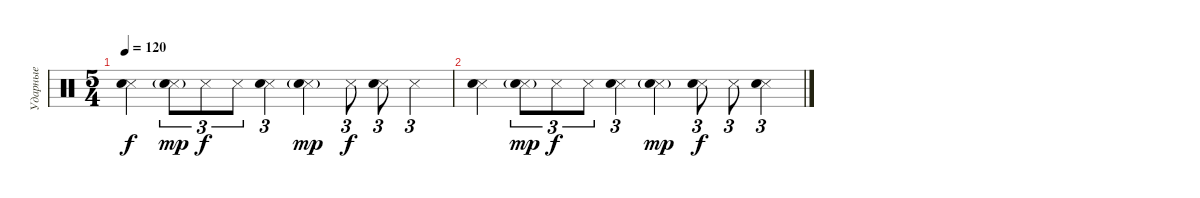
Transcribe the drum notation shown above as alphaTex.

\track ("Ударные" "Ударные") {instrument percussion}
\staff {score}
\articulation defaults
\ts (5 4)
\tempo 120
\clef neutral
\ks c
("Snare (side stick) 3" "Hand Clap (hit)").4{dy f} ("Snare (side stick) 3"{g} "Hand Clap (hit)"{g}).8{tu (3 2) dy mp} "Snare (side stick) 3".8{tu (3 2) dy f} "Snare (side stick) 3".8{tu (3 2)} ("Snare (side stick) 3" "Hand Clap (hit)").4{tu (3 2)} ("Snare (side stick) 3"{g} "Hand Clap (hit)"{g}).4{dy mp} "Snare (side stick) 3".8{tu (3 2) dy f} ("Snare (side stick) 3" "Hand Clap (hit)").8{tu (3 2)} "Snare (side stick) 3".4{tu (3 2)} |
("Snare (side stick) 3" "Hand Clap (hit)").4 ("Snare (side stick) 3"{g} "Hand Clap (hit)"{g}).8{tu (3 2) dy mp} "Snare (side stick) 3".8{tu (3 2) dy f} "Snare (side stick) 3".8{tu (3 2)} ("Snare (side stick) 3" "Hand Clap (hit)").4{tu (3 2)} ("Snare (side stick) 3"{g} "Hand Clap (hit)"{g}).4{dy mp} ("Snare (side stick) 3" "Hand Clap (hit)").8{tu (3 2) dy f} "Snare (side stick) 3".8{tu (3 2)} ("Snare (side stick) 3" "Hand Clap (hit)").4{tu (3 2)}
